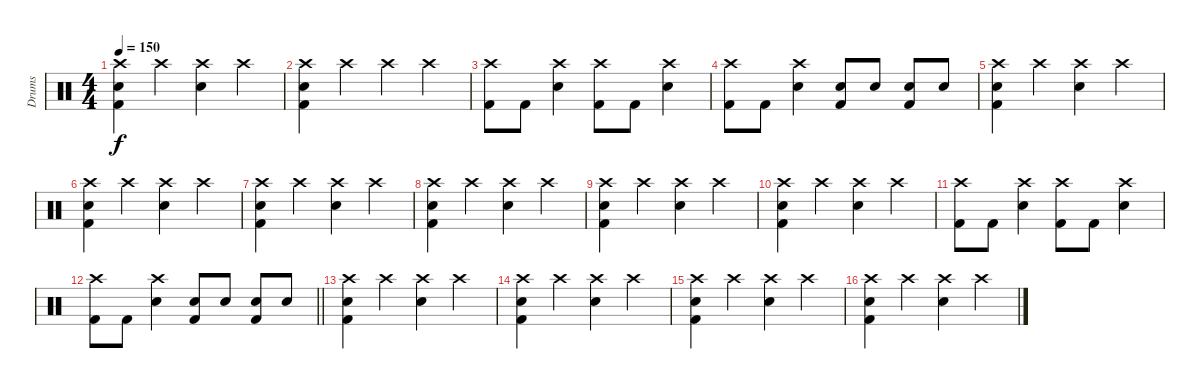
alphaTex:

\track ("Drums" "Drums") {instrument percussion}
\staff {score}
\articulation defaults
\ts (4 4)
\tempo 150
\clef neutral
\ks c
("Crash high (hit)" "Electric Snare (hit)" "Kick (hit) 2").4{dy f} "Crash high (hit)".4 ("Crash high (hit)" "Electric Snare (hit)").4 "Crash high (hit)".4 |
("Crash high (hit)" "Electric Snare (hit)" "Kick (hit) 2").4 "Crash high (hit)".4 "Crash high (hit)".4 "Crash high (hit)".4 |
("Crash high (hit)" "Kick (hit) 2").8 "Kick (hit) 2".8 ("Crash high (hit)" "Electric Snare (hit)").4 ("Crash high (hit)" "Kick (hit) 2").8 "Kick (hit) 2".8 ("Crash high (hit)" "Electric Snare (hit)").4 |
("Crash high (hit)" "Kick (hit) 2").8 "Kick (hit) 2".8 ("Crash high (hit)" "Electric Snare (hit)").4 ("Electric Snare (hit)" "Kick (hit) 2").8 "Electric Snare (hit)".8 ("Electric Snare (hit)" "Kick (hit) 2").8 "Electric Snare (hit)".8 |
("Crash high (hit)" "Electric Snare (hit)" "Kick (hit) 2").4 "Crash high (hit)".4 ("Crash high (hit)" "Electric Snare (hit)").4 "Crash high (hit)".4 |
("Crash high (hit)" "Electric Snare (hit)" "Kick (hit) 2").4 "Crash high (hit)".4 ("Crash high (hit)" "Electric Snare (hit)").4 "Crash high (hit)".4 |
("Crash high (hit)" "Electric Snare (hit)" "Kick (hit) 2").4 "Crash high (hit)".4 ("Crash high (hit)" "Electric Snare (hit)").4 "Crash high (hit)".4 |
("Crash high (hit)" "Electric Snare (hit)" "Kick (hit) 2").4 "Crash high (hit)".4 ("Crash high (hit)" "Electric Snare (hit)").4 "Crash high (hit)".4 |
("Crash high (hit)" "Electric Snare (hit)" "Kick (hit) 2").4 "Crash high (hit)".4 ("Crash high (hit)" "Electric Snare (hit)").4 "Crash high (hit)".4 |
("Crash high (hit)" "Electric Snare (hit)" "Kick (hit) 2").4 "Crash high (hit)".4 ("Crash high (hit)" "Electric Snare (hit)").4 "Crash high (hit)".4 |
("Crash high (hit)" "Kick (hit) 2").8 "Kick (hit) 2".8 ("Crash high (hit)" "Electric Snare (hit)").4 ("Crash high (hit)" "Kick (hit) 2").8 "Kick (hit) 2".8 ("Crash high (hit)" "Electric Snare (hit)").4 |
\barLineRight lightlight
("Crash high (hit)" "Kick (hit) 2").8 "Kick (hit) 2".8 ("Crash high (hit)" "Electric Snare (hit)").4 ("Electric Snare (hit)" "Kick (hit) 2").8 "Electric Snare (hit)".8 ("Electric Snare (hit)" "Kick (hit) 2").8 "Electric Snare (hit)".8 |
("Crash high (hit)" "Electric Snare (hit)" "Kick (hit) 2").4 "Crash high (hit)".4 ("Crash high (hit)" "Electric Snare (hit)").4 "Crash high (hit)".4 |
("Crash high (hit)" "Electric Snare (hit)" "Kick (hit) 2").4 "Crash high (hit)".4 ("Crash high (hit)" "Electric Snare (hit)").4 "Crash high (hit)".4 |
("Crash high (hit)" "Electric Snare (hit)" "Kick (hit) 2").4 "Crash high (hit)".4 ("Crash high (hit)" "Electric Snare (hit)").4 "Crash high (hit)".4 |
("Crash high (hit)" "Electric Snare (hit)" "Kick (hit) 2").4 "Crash high (hit)".4 ("Crash high (hit)" "Electric Snare (hit)").4 "Crash high (hit)".4
